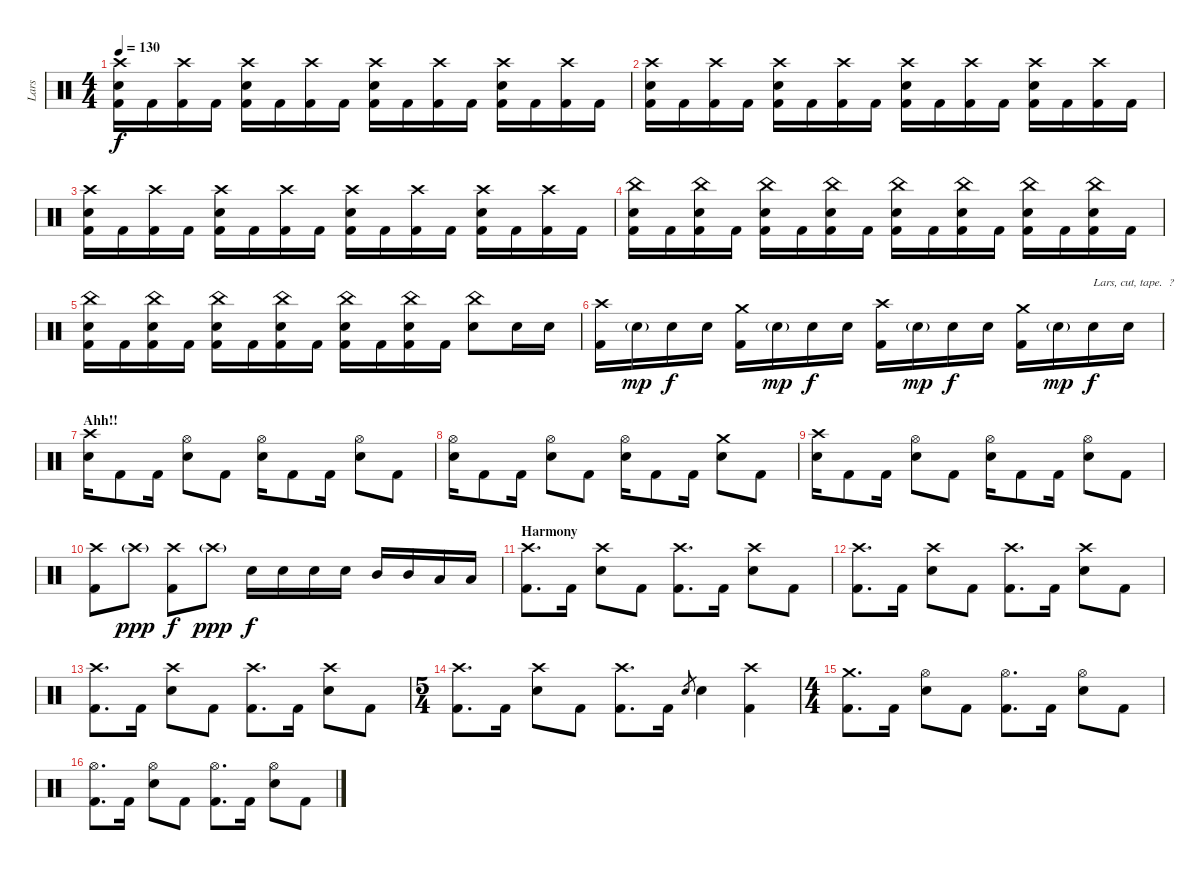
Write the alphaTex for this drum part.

\track ("Lars" "Lars") {instrument percussion}
\staff {score}
\articulation defaults
\ts (4 4)
\tempo 130
\clef neutral
\ks c
("Kick (hit) 2" "Electric Snare (hit)" "Crash high (hit)").16{dy f} "Kick (hit) 2".16 ("Kick (hit) 2" "Crash high (hit)").16 "Kick (hit) 2".16 ("Kick (hit) 2" "Electric Snare (hit)" "Crash high (hit)").16 "Kick (hit) 2".16 ("Kick (hit) 2" "Crash high (hit)").16 "Kick (hit) 2".16 ("Kick (hit) 2" "Electric Snare (hit)" "Crash high (hit)").16 "Kick (hit) 2".16 ("Kick (hit) 2" "Crash high (hit)").16 "Kick (hit) 2".16 ("Kick (hit) 2" "Electric Snare (hit)" "Crash high (hit)").16 "Kick (hit) 2".16 ("Kick (hit) 2" "Crash high (hit)").16 "Kick (hit) 2".16 |
("Kick (hit) 2" "Electric Snare (hit)" "Crash high (hit)").16 "Kick (hit) 2".16 ("Kick (hit) 2" "Crash high (hit)").16 "Kick (hit) 2".16 ("Kick (hit) 2" "Electric Snare (hit)" "Crash high (hit)").16 "Kick (hit) 2".16 ("Kick (hit) 2" "Crash high (hit)").16 "Kick (hit) 2".16 ("Kick (hit) 2" "Electric Snare (hit)" "Crash high (hit)").16 "Kick (hit) 2".16 ("Kick (hit) 2" "Crash high (hit)").16 "Kick (hit) 2".16 ("Kick (hit) 2" "Electric Snare (hit)" "Crash high (hit)").16 "Kick (hit) 2".16 ("Kick (hit) 2" "Crash high (hit)").16 "Kick (hit) 2".16 |
("Kick (hit) 2" "Electric Snare (hit)" "Crash high (hit)").16 "Kick (hit) 2".16 ("Kick (hit) 2" "Crash high (hit)").16 "Kick (hit) 2".16 ("Kick (hit) 2" "Electric Snare (hit)" "Crash high (hit)").16 "Kick (hit) 2".16 ("Kick (hit) 2" "Crash high (hit)").16 "Kick (hit) 2".16 ("Kick (hit) 2" "Electric Snare (hit)" "Crash high (hit)").16 "Kick (hit) 2".16 ("Kick (hit) 2" "Crash high (hit)").16 "Kick (hit) 2".16 ("Kick (hit) 2" "Electric Snare (hit)" "Crash high (hit)").16 "Kick (hit) 2".16 ("Kick (hit) 2" "Crash high (hit)").16 "Kick (hit) 2".16 |
("Kick (hit) 2" "Electric Snare (hit)" "China (hit)").16 "Kick (hit) 2".16 ("Kick (hit) 2" "Electric Snare (hit)" "China (hit)").16 "Kick (hit) 2".16 ("Kick (hit) 2" "Electric Snare (hit)" "China (hit)").16 "Kick (hit) 2".16 ("Kick (hit) 2" "Electric Snare (hit)" "China (hit)").16 "Kick (hit) 2".16 ("Kick (hit) 2" "Electric Snare (hit)" "China (hit)").16 "Kick (hit) 2".16 ("Kick (hit) 2" "Electric Snare (hit)" "China (hit)").16 "Kick (hit) 2".16 ("Kick (hit) 2" "Electric Snare (hit)" "China (hit)").16 "Kick (hit) 2".16 ("Kick (hit) 2" "Electric Snare (hit)" "China (hit)").16 "Kick (hit) 2".16 |
("Kick (hit) 2" "Electric Snare (hit)" "China (hit)").16 "Kick (hit) 2".16 ("Kick (hit) 2" "Electric Snare (hit)" "China (hit)").16 "Kick (hit) 2".16 ("Kick (hit) 2" "Electric Snare (hit)" "China (hit)").16 "Kick (hit) 2".16 ("Kick (hit) 2" "Electric Snare (hit)" "China (hit)").16 "Kick (hit) 2".16 ("Kick (hit) 2" "Electric Snare (hit)" "China (hit)").16 "Kick (hit) 2".16 ("Kick (hit) 2" "Electric Snare (hit)" "China (hit)").16 "Kick (hit) 2".16 ("Electric Snare (hit)" "China (hit)").8 "Electric Snare (hit)".16 "Electric Snare (hit)".16 |
("Kick (hit) 2" "Crash high (hit)").16 "Electric Snare (hit)"{g}.16{dy mp} "Electric Snare (hit)".16{dy f} "Electric Snare (hit)".16 ("Kick (hit) 2" "Crash medium (hit)").16 "Electric Snare (hit)"{g}.16{dy mp} "Electric Snare (hit)".16{dy f} "Electric Snare (hit)".16 ("Kick (hit) 2" "Crash high (hit)").16 "Electric Snare (hit)"{g}.16{dy mp} "Electric Snare (hit)".16{dy f} "Electric Snare (hit)".16 ("Kick (hit) 2" "Crash medium (hit)").16 "Electric Snare (hit)"{g}.16{dy mp} "Electric Snare (hit)".16{txt "Lars, cut, tape.  ?" dy f} "Electric Snare (hit)".16 |
\section ("" "Ahh!!")
("Electric Snare (hit)" "Crash high (hit)").16 "Kick (hit) 2".8 "Kick (hit) 2".16 ("Electric Snare (hit)" "Hi-Hat (open)").8 "Kick (hit) 2".8 ("Electric Snare (hit)" "Hi-Hat (open)").16 "Kick (hit) 2".8 "Kick (hit) 2".16 ("Electric Snare (hit)" "Hi-Hat (open)").8 "Kick (hit) 2".8 |
("Electric Snare (hit)" "Hi-Hat (open)").16 "Kick (hit) 2".8 "Kick (hit) 2".16 ("Electric Snare (hit)" "Hi-Hat (open)").8 "Kick (hit) 2".8 ("Electric Snare (hit)" "Hi-Hat (open)").16 "Kick (hit) 2".8 "Kick (hit) 2".16 ("Electric Snare (hit)" "Crash medium (hit)").8 "Kick (hit) 2".8 |
("Electric Snare (hit)" "Crash high (hit)").16 "Kick (hit) 2".8 "Kick (hit) 2".16 ("Electric Snare (hit)" "Hi-Hat (open)").8 "Kick (hit) 2".8 ("Electric Snare (hit)" "Hi-Hat (open)").16 "Kick (hit) 2".8 "Kick (hit) 2".16 ("Electric Snare (hit)" "Hi-Hat (open)").8 "Kick (hit) 2".8 |
("Kick (hit) 2" "Crash high (hit)").8 "Crash high (hit)"{g}.8{dy ppp} ("Kick (hit) 2" "Crash high (hit)").8{dy f} "Crash high (hit)"{g}.8{dy ppp} "Electric Snare (hit)".16{dy f} "Electric Snare (hit)".16 "Electric Snare (hit)".16 "Electric Snare (hit)".16 "Mid Tom (hit)".16 "Mid Tom (hit)".16 "Low Tom (hit)".16 "Low Tom (hit)".16 |
\section ("" "Harmony")
("Kick (hit) 2" "Crash high (hit)").8{d} "Kick (hit) 2".16 ("Electric Snare (hit)" "Crash high (hit)").8 "Kick (hit) 2".8 ("Kick (hit) 2" "Crash high (hit)").8{d} "Kick (hit) 2".16 ("Electric Snare (hit)" "Crash high (hit)").8 "Kick (hit) 2".8 |
("Kick (hit) 2" "Crash high (hit)").8{d} "Kick (hit) 2".16 ("Electric Snare (hit)" "Crash high (hit)").8 "Kick (hit) 2".8 ("Kick (hit) 2" "Crash high (hit)").8{d} "Kick (hit) 2".16 ("Electric Snare (hit)" "Crash high (hit)").8 "Kick (hit) 2".8 |
("Kick (hit) 2" "Crash high (hit)").8{d} "Kick (hit) 2".16 ("Electric Snare (hit)" "Crash high (hit)").8 "Kick (hit) 2".8 ("Kick (hit) 2" "Crash high (hit)").8{d} "Kick (hit) 2".16 ("Electric Snare (hit)" "Crash high (hit)").8 "Kick (hit) 2".8 |
\ts (5 4)
("Kick (hit) 2" "Crash high (hit)").8{d} "Kick (hit) 2".16 ("Electric Snare (hit)" "Crash high (hit)").8 "Kick (hit) 2".8 ("Kick (hit) 2" "Crash high (hit)").8{d} "Kick (hit) 2".16 "Electric Snare (hit)".8{gr} "Electric Snare (hit)".4 ("Kick (hit) 2" "Crash high (hit)").4 |
\ts (4 4)
\section ("" "")
("Kick (hit) 2" "Crash medium (hit)").8{d} "Kick (hit) 2".16 ("Electric Snare (hit)" "Hi-Hat (open)").8 "Kick (hit) 2".8 ("Kick (hit) 2" "Hi-Hat (open)").8{d} "Kick (hit) 2".16 ("Electric Snare (hit)" "Hi-Hat (open)").8 "Kick (hit) 2".8 |
("Kick (hit) 2" "Hi-Hat (open)").8{d} "Kick (hit) 2".16 ("Electric Snare (hit)" "Hi-Hat (open)").8 "Kick (hit) 2".8 ("Kick (hit) 2" "Hi-Hat (open)").8{d} "Kick (hit) 2".16 ("Electric Snare (hit)" "Hi-Hat (open)").8 "Kick (hit) 2".8
